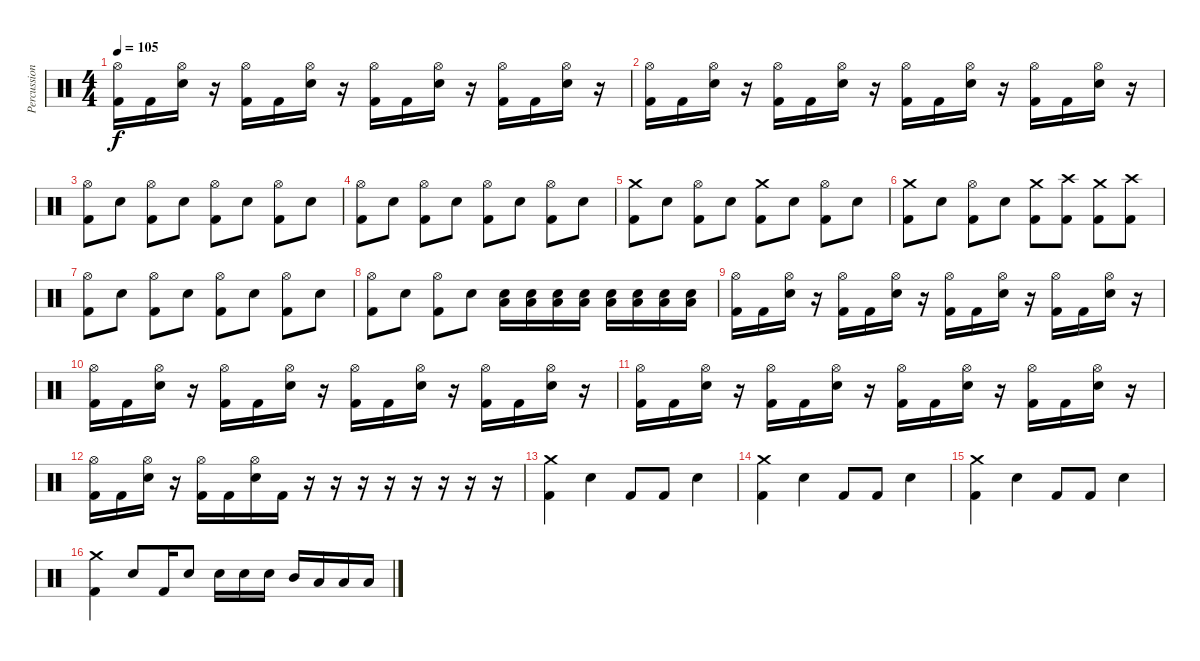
\track ("Percussion" "Percussion") {instrument percussion}
\staff {score}
\articulation defaults
\ts (4 4)
\tempo 105
\clef neutral
\ks c
("Hi-Hat (open)" "Kick (hit) 2").16{dy f} "Kick (hit) 2".16 ("Hi-Hat (open)" "Snare (hit) 2").16 r.16 ("Hi-Hat (open)" "Kick (hit) 2").16 "Kick (hit) 2".16 ("Hi-Hat (open)" "Snare (hit) 2").16 r.16 ("Hi-Hat (open)" "Kick (hit) 2").16 "Kick (hit) 2".16 ("Hi-Hat (open)" "Snare (hit) 2").16 r.16 ("Hi-Hat (open)" "Kick (hit) 2").16 "Kick (hit) 2".16 ("Hi-Hat (open)" "Snare (hit) 2").16 r.16 |
("Hi-Hat (open)" "Kick (hit) 2").16 "Kick (hit) 2".16 ("Hi-Hat (open)" "Snare (hit) 2").16 r.16 ("Hi-Hat (open)" "Kick (hit) 2").16 "Kick (hit) 2".16 ("Hi-Hat (open)" "Snare (hit) 2").16 r.16 ("Hi-Hat (open)" "Kick (hit) 2").16 "Kick (hit) 2".16 ("Hi-Hat (open)" "Snare (hit) 2").16 r.16 ("Hi-Hat (open)" "Kick (hit) 2").16 "Kick (hit) 2".16 ("Hi-Hat (open)" "Snare (hit) 2").16 r.16 |
("Hi-Hat (open)" "Kick (hit) 2").8 "Snare (hit) 2".8 ("Hi-Hat (open)" "Kick (hit) 2").8 "Snare (hit) 2".8 ("Hi-Hat (open)" "Kick (hit) 2").8 "Snare (hit) 2".8 ("Hi-Hat (open)" "Kick (hit) 2").8 "Snare (hit) 2".8 |
("Hi-Hat (open)" "Kick (hit) 2").8 "Snare (hit) 2".8 ("Hi-Hat (open)" "Kick (hit) 2").8 "Snare (hit) 2".8 ("Hi-Hat (open)" "Kick (hit) 2").8 "Snare (hit) 2".8 ("Hi-Hat (open)" "Kick (hit) 2").8 "Snare (hit) 2".8 |
("Crash medium (hit)" "Kick (hit) 2").8 "Snare (hit) 2".8 ("Hi-Hat (open)" "Kick (hit) 2").8 "Snare (hit) 2".8 ("Crash medium (hit)" "Kick (hit) 2").8 "Snare (hit) 2".8 ("Hi-Hat (open)" "Kick (hit) 2").8 "Snare (hit) 2".8 |
("Crash medium (hit)" "Kick (hit) 2").8 "Snare (hit) 2".8 ("Hi-Hat (open)" "Kick (hit) 2").8 "Snare (hit) 2".8 ("Crash medium (hit)" "Kick (hit) 2").8 ("Crash high (hit)" "Kick (hit) 2").8 ("Crash medium (hit)" "Kick (hit) 2").8 ("Crash high (hit)" "Kick (hit) 2").8 |
("Hi-Hat (open)" "Kick (hit) 2").8 "Snare (hit) 2".8 ("Hi-Hat (open)" "Kick (hit) 2").8 "Snare (hit) 2".8 ("Hi-Hat (open)" "Kick (hit) 2").8 "Snare (hit) 2".8 ("Hi-Hat (open)" "Kick (hit) 2").8 "Snare (hit) 2".8 |
("Hi-Hat (open)" "Kick (hit) 2").8 "Snare (hit) 2".8 ("Hi-Hat (open)" "Kick (hit) 2").8 "Snare (hit) 2".8 ("Low Floor Tom (hit)" "Snare (hit) 2").16 ("Low Floor Tom (hit)" "Snare (hit) 2").16 ("Low Floor Tom (hit)" "Snare (hit) 2").16 ("Low Floor Tom (hit)" "Snare (hit) 2").16 ("Low Floor Tom (hit)" "Snare (hit) 2").16 ("Low Floor Tom (hit)" "Snare (hit) 2").16 ("Low Floor Tom (hit)" "Snare (hit) 2").16 ("Low Floor Tom (hit)" "Snare (hit) 2").16 |
("Hi-Hat (open)" "Kick (hit) 2").16 "Kick (hit) 2".16 ("Hi-Hat (open)" "Snare (hit) 2").16 r.16 ("Hi-Hat (open)" "Kick (hit) 2").16 "Kick (hit) 2".16 ("Hi-Hat (open)" "Snare (hit) 2").16 r.16 ("Hi-Hat (open)" "Kick (hit) 2").16 "Kick (hit) 2".16 ("Hi-Hat (open)" "Snare (hit) 2").16 r.16 ("Hi-Hat (open)" "Kick (hit) 2").16 "Kick (hit) 2".16 ("Hi-Hat (open)" "Snare (hit) 2").16 r.16 |
("Hi-Hat (open)" "Kick (hit) 2").16 "Kick (hit) 2".16 ("Hi-Hat (open)" "Snare (hit) 2").16 r.16 ("Hi-Hat (open)" "Kick (hit) 2").16 "Kick (hit) 2".16 ("Hi-Hat (open)" "Snare (hit) 2").16 r.16 ("Hi-Hat (open)" "Kick (hit) 2").16 "Kick (hit) 2".16 ("Hi-Hat (open)" "Snare (hit) 2").16 r.16 ("Hi-Hat (open)" "Kick (hit) 2").16 "Kick (hit) 2".16 ("Hi-Hat (open)" "Snare (hit) 2").16 r.16 |
("Hi-Hat (open)" "Kick (hit) 2").16 "Kick (hit) 2".16 ("Hi-Hat (open)" "Snare (hit) 2").16 r.16 ("Hi-Hat (open)" "Kick (hit) 2").16 "Kick (hit) 2".16 ("Hi-Hat (open)" "Snare (hit) 2").16 r.16 ("Hi-Hat (open)" "Kick (hit) 2").16 "Kick (hit) 2".16 ("Hi-Hat (open)" "Snare (hit) 2").16 r.16 ("Hi-Hat (open)" "Kick (hit) 2").16 "Kick (hit) 2".16 ("Hi-Hat (open)" "Snare (hit) 2").16 r.16 |
("Hi-Hat (open)" "Kick (hit) 2").16 "Kick (hit) 2".16 ("Hi-Hat (open)" "Snare (hit) 2").16 r.16 ("Hi-Hat (open)" "Kick (hit) 2").16 "Kick (hit) 2".16 ("Hi-Hat (open)" "Snare (hit) 2").16 "Kick (hit) 2".16 r.16 r.16 r.16 r.16 r.16 r.16 r.16 r.16 |
("Crash medium (hit)" "Kick (hit) 2").4 "Snare (hit) 2".4 "Kick (hit) 2".8 "Kick (hit) 2".8 "Snare (hit) 2".4 |
("Crash medium (hit)" "Kick (hit) 2").4 "Snare (hit) 2".4 "Kick (hit) 2".8 "Kick (hit) 2".8 "Snare (hit) 2".4 |
("Crash medium (hit)" "Kick (hit) 2").4 "Snare (hit) 2".4 "Kick (hit) 2".8 "Kick (hit) 2".8 "Snare (hit) 2".4 |
("Crash medium (hit)" "Kick (hit) 2").4 "Snare (hit) 2".8 "Kick (hit) 2".16 "Snare (hit) 2".8 "Snare (hit) 2".16 "Snare (hit) 2".16 "Snare (hit) 2".16 "Mid Tom (hit)".16 "Low Tom (hit)".16 "Low Floor Tom (hit)".16 "Low Floor Tom (hit)".16
